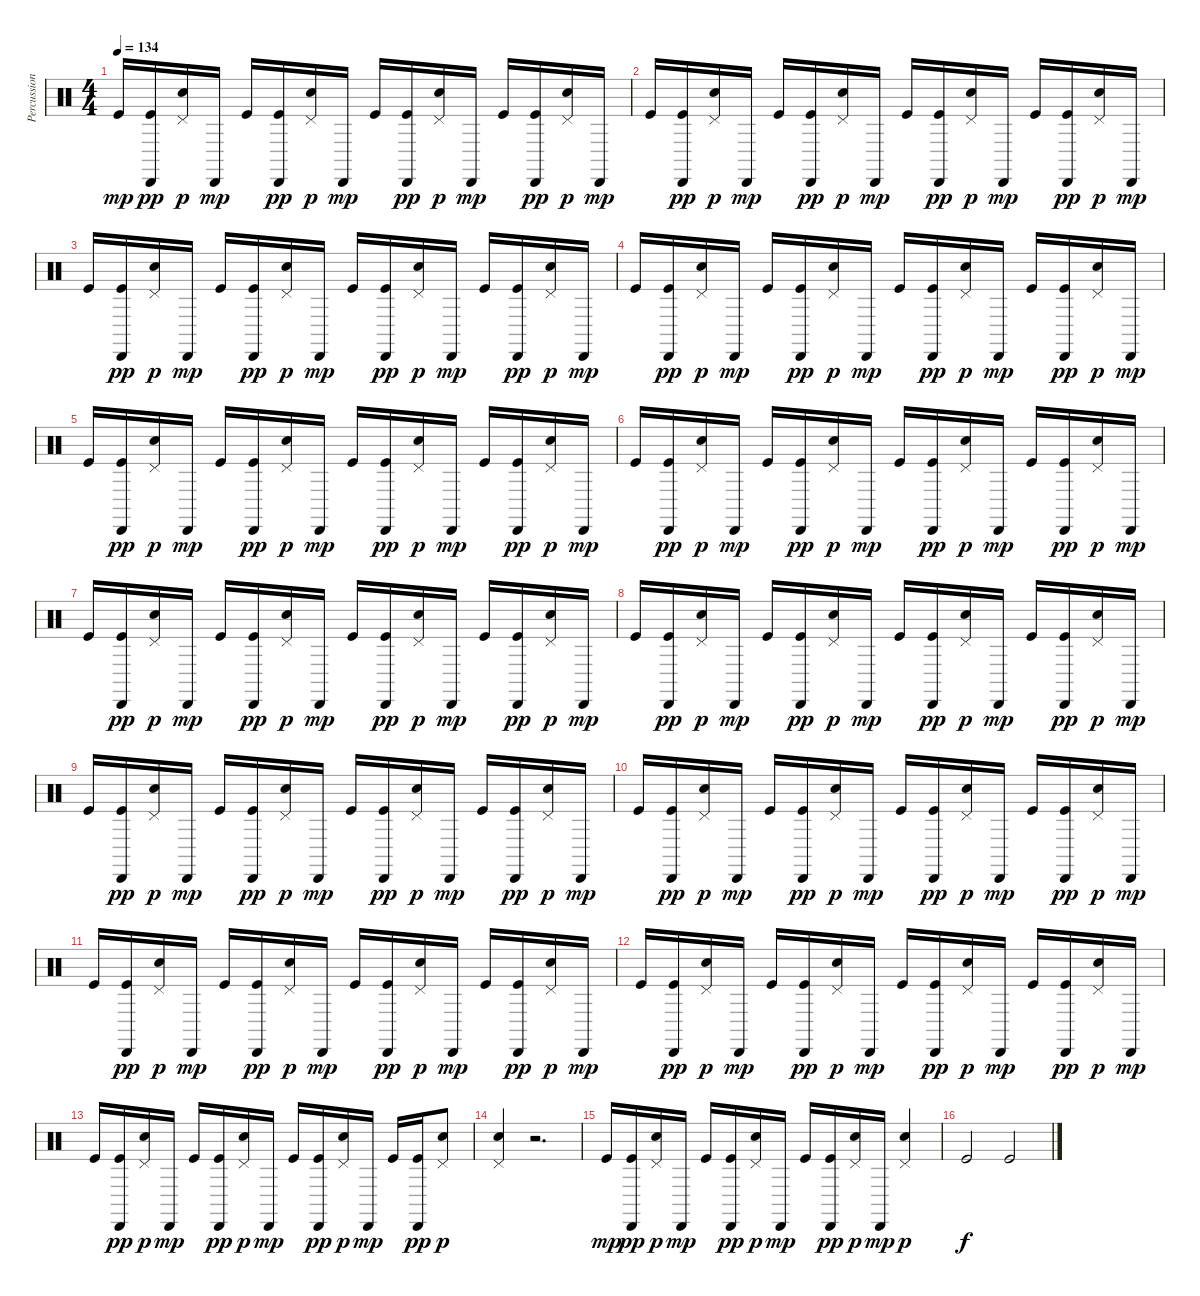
\track ("Percussions" "Percussion") {instrument percussion}
\staff {score}
\articulation defaults
\ts (4 4)
\tempo 134
\clef neutral
\ks c "Kick (hit)".16{dy mp}
("Cabasa (hit)" "Kick (hit)").16{dy pp} ("Electric Snare (hit)" "Pedal Hi-Hat (hit)").16{dy p} "Cabasa (hit)".16{dy mp} "Kick (hit)".16 ("Cabasa (hit)" "Kick (hit)").16{dy pp} ("Electric Snare (hit)" "Pedal Hi-Hat (hit)").16{dy p} "Cabasa (hit)".16{dy mp} "Kick (hit)".16 ("Cabasa (hit)" "Kick (hit)").16{dy pp} ("Electric Snare (hit)" "Pedal Hi-Hat (hit)").16{dy p} "Cabasa (hit)".16{dy mp} "Kick (hit)".16 ("Cabasa (hit)" "Kick (hit)").16{dy pp} ("Electric Snare (hit)" "Pedal Hi-Hat (hit)").16{dy p} "Cabasa (hit)".16{dy mp} |
"Kick (hit)".16 ("Cabasa (hit)" "Kick (hit)").16{dy pp} ("Electric Snare (hit)" "Pedal Hi-Hat (hit)").16{dy p} "Cabasa (hit)".16{dy mp} "Kick (hit)".16 ("Cabasa (hit)" "Kick (hit)").16{dy pp} ("Electric Snare (hit)" "Pedal Hi-Hat (hit)").16{dy p} "Cabasa (hit)".16{dy mp} "Kick (hit)".16 ("Cabasa (hit)" "Kick (hit)").16{dy pp} ("Electric Snare (hit)" "Pedal Hi-Hat (hit)").16{dy p} "Cabasa (hit)".16{dy mp} "Kick (hit)".16 ("Cabasa (hit)" "Kick (hit)").16{dy pp} ("Electric Snare (hit)" "Pedal Hi-Hat (hit)").16{dy p} "Cabasa (hit)".16{dy mp} |
"Kick (hit)".16 ("Cabasa (hit)" "Kick (hit)").16{dy pp} ("Electric Snare (hit)" "Pedal Hi-Hat (hit)").16{dy p} "Cabasa (hit)".16{dy mp} "Kick (hit)".16 ("Cabasa (hit)" "Kick (hit)").16{dy pp} ("Electric Snare (hit)" "Pedal Hi-Hat (hit)").16{dy p} "Cabasa (hit)".16{dy mp} "Kick (hit)".16 ("Cabasa (hit)" "Kick (hit)").16{dy pp} ("Electric Snare (hit)" "Pedal Hi-Hat (hit)").16{dy p} "Cabasa (hit)".16{dy mp} "Kick (hit)".16 ("Cabasa (hit)" "Kick (hit)").16{dy pp} ("Electric Snare (hit)" "Pedal Hi-Hat (hit)").16{dy p} "Cabasa (hit)".16{dy mp} |
"Kick (hit)".16 ("Cabasa (hit)" "Kick (hit)").16{dy pp} ("Electric Snare (hit)" "Pedal Hi-Hat (hit)").16{dy p} "Cabasa (hit)".16{dy mp} "Kick (hit)".16 ("Cabasa (hit)" "Kick (hit)").16{dy pp} ("Electric Snare (hit)" "Pedal Hi-Hat (hit)").16{dy p} "Cabasa (hit)".16{dy mp} "Kick (hit)".16 ("Cabasa (hit)" "Kick (hit)").16{dy pp} ("Electric Snare (hit)" "Pedal Hi-Hat (hit)").16{dy p} "Cabasa (hit)".16{dy mp} "Kick (hit)".16 ("Cabasa (hit)" "Kick (hit)").16{dy pp} ("Electric Snare (hit)" "Pedal Hi-Hat (hit)").16{dy p} "Cabasa (hit)".16{dy mp} |
"Kick (hit)".16 ("Cabasa (hit)" "Kick (hit)").16{dy pp} ("Electric Snare (hit)" "Pedal Hi-Hat (hit)").16{dy p} "Cabasa (hit)".16{dy mp} "Kick (hit)".16 ("Cabasa (hit)" "Kick (hit)").16{dy pp} ("Electric Snare (hit)" "Pedal Hi-Hat (hit)").16{dy p} "Cabasa (hit)".16{dy mp} "Kick (hit)".16 ("Cabasa (hit)" "Kick (hit)").16{dy pp} ("Electric Snare (hit)" "Pedal Hi-Hat (hit)").16{dy p} "Cabasa (hit)".16{dy mp} "Kick (hit)".16 ("Cabasa (hit)" "Kick (hit)").16{dy pp} ("Electric Snare (hit)" "Pedal Hi-Hat (hit)").16{dy p} "Cabasa (hit)".16{dy mp} |
"Kick (hit)".16 ("Cabasa (hit)" "Kick (hit)").16{dy pp} ("Electric Snare (hit)" "Pedal Hi-Hat (hit)").16{dy p} "Cabasa (hit)".16{dy mp} "Kick (hit)".16 ("Cabasa (hit)" "Kick (hit)").16{dy pp} ("Electric Snare (hit)" "Pedal Hi-Hat (hit)").16{dy p} "Cabasa (hit)".16{dy mp} "Kick (hit)".16 ("Cabasa (hit)" "Kick (hit)").16{dy pp} ("Electric Snare (hit)" "Pedal Hi-Hat (hit)").16{dy p} "Cabasa (hit)".16{dy mp} "Kick (hit)".16 ("Cabasa (hit)" "Kick (hit)").16{dy pp} ("Electric Snare (hit)" "Pedal Hi-Hat (hit)").16{dy p} "Cabasa (hit)".16{dy mp} |
"Kick (hit)".16 ("Cabasa (hit)" "Kick (hit)").16{dy pp} ("Electric Snare (hit)" "Pedal Hi-Hat (hit)").16{dy p} "Cabasa (hit)".16{dy mp} "Kick (hit)".16 ("Cabasa (hit)" "Kick (hit)").16{dy pp} ("Electric Snare (hit)" "Pedal Hi-Hat (hit)").16{dy p} "Cabasa (hit)".16{dy mp} "Kick (hit)".16 ("Cabasa (hit)" "Kick (hit)").16{dy pp} ("Electric Snare (hit)" "Pedal Hi-Hat (hit)").16{dy p} "Cabasa (hit)".16{dy mp} "Kick (hit)".16 ("Cabasa (hit)" "Kick (hit)").16{dy pp} ("Electric Snare (hit)" "Pedal Hi-Hat (hit)").16{dy p} "Cabasa (hit)".16{dy mp} |
"Kick (hit)".16 ("Cabasa (hit)" "Kick (hit)").16{dy pp} ("Electric Snare (hit)" "Pedal Hi-Hat (hit)").16{dy p} "Cabasa (hit)".16{dy mp} "Kick (hit)".16 ("Cabasa (hit)" "Kick (hit)").16{dy pp} ("Electric Snare (hit)" "Pedal Hi-Hat (hit)").16{dy p} "Cabasa (hit)".16{dy mp} "Kick (hit)".16 ("Cabasa (hit)" "Kick (hit)").16{dy pp} ("Electric Snare (hit)" "Pedal Hi-Hat (hit)").16{dy p} "Cabasa (hit)".16{dy mp} "Kick (hit)".16 ("Cabasa (hit)" "Kick (hit)").16{dy pp} ("Electric Snare (hit)" "Pedal Hi-Hat (hit)").16{dy p} "Cabasa (hit)".16{dy mp} |
"Kick (hit)".16 ("Cabasa (hit)" "Kick (hit)").16{dy pp} ("Electric Snare (hit)" "Pedal Hi-Hat (hit)").16{dy p} "Cabasa (hit)".16{dy mp} "Kick (hit)".16 ("Cabasa (hit)" "Kick (hit)").16{dy pp} ("Electric Snare (hit)" "Pedal Hi-Hat (hit)").16{dy p} "Cabasa (hit)".16{dy mp} "Kick (hit)".16 ("Cabasa (hit)" "Kick (hit)").16{dy pp} ("Electric Snare (hit)" "Pedal Hi-Hat (hit)").16{dy p} "Cabasa (hit)".16{dy mp} "Kick (hit)".16 ("Cabasa (hit)" "Kick (hit)").16{dy pp} ("Electric Snare (hit)" "Pedal Hi-Hat (hit)").16{dy p} "Cabasa (hit)".16{dy mp} |
"Kick (hit)".16 ("Cabasa (hit)" "Kick (hit)").16{dy pp} ("Electric Snare (hit)" "Pedal Hi-Hat (hit)").16{dy p} "Cabasa (hit)".16{dy mp} "Kick (hit)".16 ("Cabasa (hit)" "Kick (hit)").16{dy pp} ("Electric Snare (hit)" "Pedal Hi-Hat (hit)").16{dy p} "Cabasa (hit)".16{dy mp} "Kick (hit)".16 ("Cabasa (hit)" "Kick (hit)").16{dy pp} ("Electric Snare (hit)" "Pedal Hi-Hat (hit)").16{dy p} "Cabasa (hit)".16{dy mp} "Kick (hit)".16 ("Cabasa (hit)" "Kick (hit)").16{dy pp} ("Electric Snare (hit)" "Pedal Hi-Hat (hit)").16{dy p} "Cabasa (hit)".16{dy mp} |
"Kick (hit)".16 ("Cabasa (hit)" "Kick (hit)").16{dy pp} ("Electric Snare (hit)" "Pedal Hi-Hat (hit)").16{dy p} "Cabasa (hit)".16{dy mp} "Kick (hit)".16 ("Cabasa (hit)" "Kick (hit)").16{dy pp} ("Electric Snare (hit)" "Pedal Hi-Hat (hit)").16{dy p} "Cabasa (hit)".16{dy mp} "Kick (hit)".16 ("Cabasa (hit)" "Kick (hit)").16{dy pp} ("Electric Snare (hit)" "Pedal Hi-Hat (hit)").16{dy p} "Cabasa (hit)".16{dy mp} "Kick (hit)".16 ("Cabasa (hit)" "Kick (hit)").16{dy pp} ("Electric Snare (hit)" "Pedal Hi-Hat (hit)").16{dy p} "Cabasa (hit)".16{dy mp} |
"Kick (hit)".16 ("Cabasa (hit)" "Kick (hit)").16{dy pp} ("Electric Snare (hit)" "Pedal Hi-Hat (hit)").16{dy p} "Cabasa (hit)".16{dy mp} "Kick (hit)".16 ("Cabasa (hit)" "Kick (hit)").16{dy pp} ("Electric Snare (hit)" "Pedal Hi-Hat (hit)").16{dy p} "Cabasa (hit)".16{dy mp} "Kick (hit)".16 ("Cabasa (hit)" "Kick (hit)").16{dy pp} ("Electric Snare (hit)" "Pedal Hi-Hat (hit)").16{dy p} "Cabasa (hit)".16{dy mp} "Kick (hit)".16 ("Cabasa (hit)" "Kick (hit)").16{dy pp} ("Electric Snare (hit)" "Pedal Hi-Hat (hit)").16{dy p} "Cabasa (hit)".16{dy mp} |
"Kick (hit)".16 ("Cabasa (hit)" "Kick (hit)").16{dy pp} ("Electric Snare (hit)" "Pedal Hi-Hat (hit)").16{dy p} "Cabasa (hit)".16{dy mp} "Kick (hit)".16 ("Cabasa (hit)" "Kick (hit)").16{dy pp} ("Electric Snare (hit)" "Pedal Hi-Hat (hit)").16{dy p} "Cabasa (hit)".16{dy mp} "Kick (hit)".16 ("Cabasa (hit)" "Kick (hit)").16{dy pp} ("Electric Snare (hit)" "Pedal Hi-Hat (hit)").16{dy p} "Cabasa (hit)".16{dy mp} "Kick (hit)".16 ("Cabasa (hit)" "Kick (hit)").16{dy pp} ("Electric Snare (hit)" "Pedal Hi-Hat (hit)").8{dy p} |
("Electric Snare (hit)" "Pedal Hi-Hat (hit)").4 r.2{d} |
"Kick (hit)".16{dy mp} ("Cabasa (hit)" "Kick (hit)").16{dy pp} ("Electric Snare (hit)" "Pedal Hi-Hat (hit)").16{dy p} "Cabasa (hit)".16{dy mp} "Kick (hit)".16 ("Cabasa (hit)" "Kick (hit)").16{dy pp} ("Electric Snare (hit)" "Pedal Hi-Hat (hit)").16{dy p} "Cabasa (hit)".16{dy mp} "Kick (hit)".16 ("Cabasa (hit)" "Kick (hit)").16{dy pp} ("Electric Snare (hit)" "Pedal Hi-Hat (hit)").16{dy p} "Cabasa (hit)".16{dy mp} ("Electric Snare (hit)" "Pedal Hi-Hat (hit)").4{dy p} |
"Kick (hit)".2{dy f} "Kick (hit)".2
